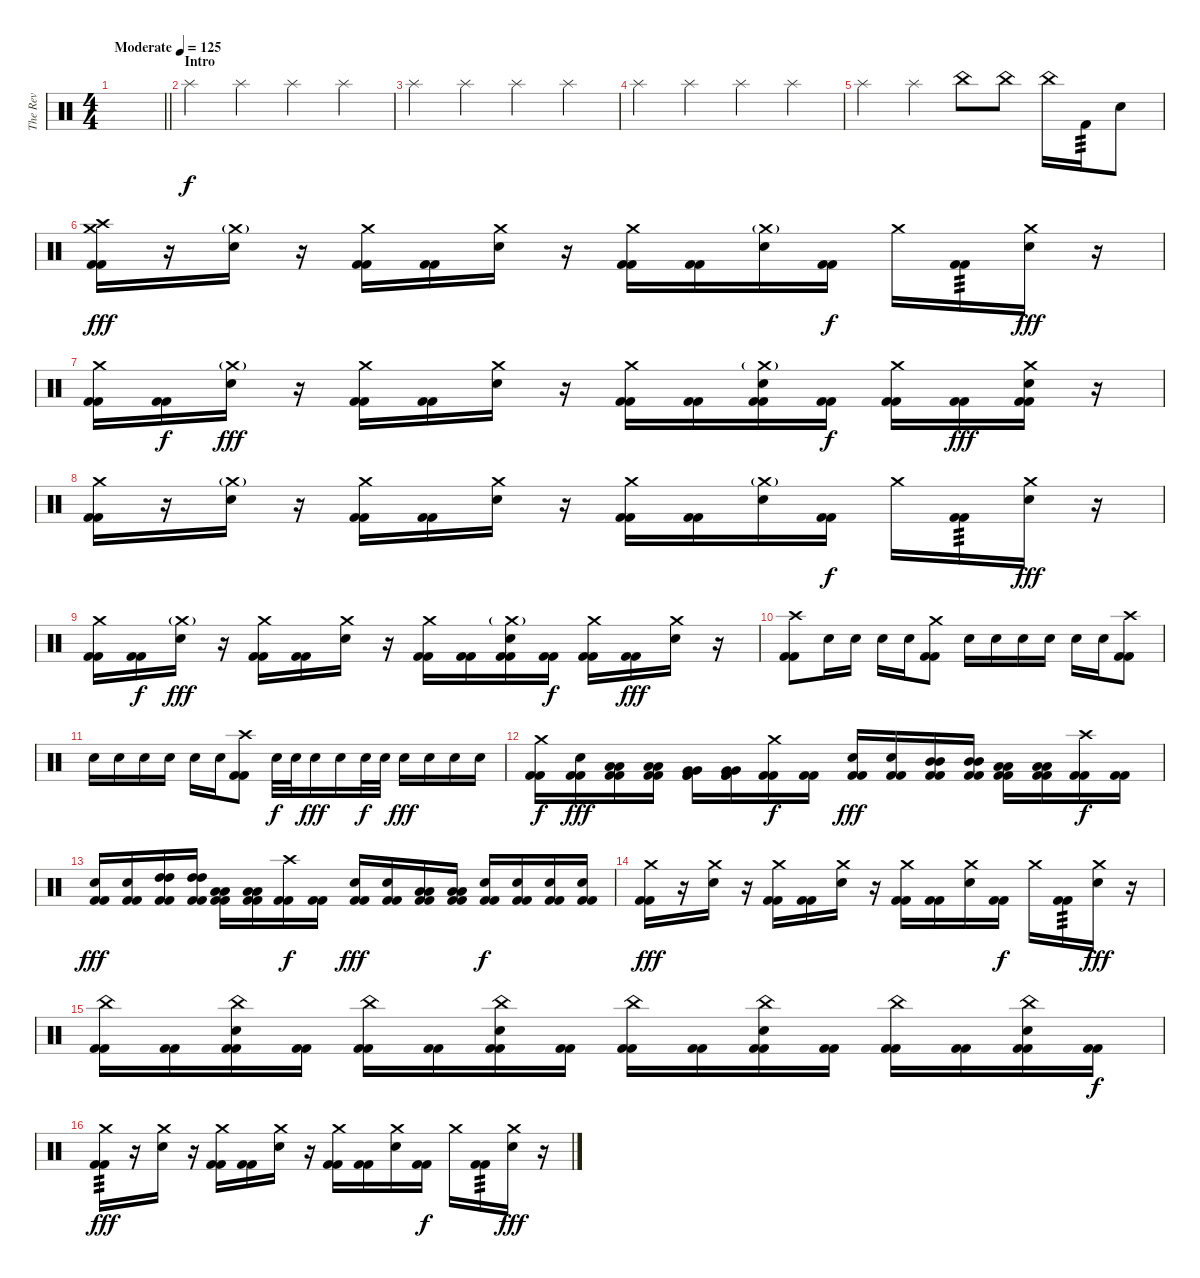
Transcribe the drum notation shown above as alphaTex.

\track ("The Rev" "The Rev") {mute instrument percussion}
\staff {score}
\articulation defaults
\ts (4 4)
\tempo (125 "Moderate")
\clef neutral
\barLineRight lightlight
\ks c
|
\section ("" "Intro")
"Splash (hit)".4 "Splash (hit)".4 "Splash (hit)".4 "Splash (hit)".4 |
"Splash (hit)".4 "Splash (hit)".4 "Splash (hit)".4 "Splash (hit)".4 |
"Splash (hit)".4 "Splash (hit)".4 "Splash (hit)".4 "Splash (hit)".4 |
"Splash (hit)".4 "Splash (hit)".4 "China (hit)".8 "China (hit)".8 "China (hit)".16 "Kick (hit) 2".16{tp 3} "Electric Snare (hit)".8 |
("Crash medium (hit)" "Crash high (hit)" "Kick (hit) 2" "Kick (hit) 2").16{dy fff} r.16 ("Crash medium (hit)"{g} "Electric Snare (hit)").16 r.16 ("Crash medium (hit)" "Kick (hit) 2" "Kick (hit) 2").16 ("Kick (hit) 2" "Kick (hit) 2").16 ("Crash medium (hit)" "Electric Snare (hit)").16 r.16 ("Crash medium (hit)" "Kick (hit) 2" "Kick (hit) 2").16 ("Kick (hit) 2" "Kick (hit) 2").16 ("Crash medium (hit)"{g} "Electric Snare (hit)").16 ("Kick (hit) 2" "Kick (hit) 2").16{dy f} "Crash medium (hit)".16 ("Kick (hit) 2" "Kick (hit) 2").16{tp 3} ("Crash medium (hit)" "Electric Snare (hit)").16{dy fff} r.16 |
("Crash medium (hit)" "Kick (hit) 2" "Kick (hit) 2").16 ("Kick (hit) 2" "Kick (hit) 2").16{dy f} ("Crash medium (hit)"{g} "Electric Snare (hit)").16{dy fff} r.16 ("Crash medium (hit)" "Kick (hit) 2" "Kick (hit) 2").16 ("Kick (hit) 2" "Kick (hit) 2").16 ("Crash medium (hit)" "Electric Snare (hit)").16 r.16 ("Crash medium (hit)" "Kick (hit) 2" "Kick (hit) 2").16 ("Kick (hit) 2" "Kick (hit) 2").16 ("Crash medium (hit)"{g} "Electric Snare (hit)" "Kick (hit) 2" "Kick (hit) 2").16 ("Kick (hit) 2" "Kick (hit) 2").16{dy f} ("Crash medium (hit)" "Kick (hit) 2" "Kick (hit) 2").16 ("Kick (hit) 2" "Kick (hit) 2").16{dy fff} ("Crash medium (hit)" "Electric Snare (hit)" "Kick (hit) 2" "Kick (hit) 2").16 r.16 |
("Crash medium (hit)" "Kick (hit) 2" "Kick (hit) 2").16 r.16 ("Crash medium (hit)"{g} "Electric Snare (hit)").16 r.16 ("Crash medium (hit)" "Kick (hit) 2" "Kick (hit) 2").16 ("Kick (hit) 2" "Kick (hit) 2").16 ("Crash medium (hit)" "Electric Snare (hit)").16 r.16 ("Crash medium (hit)" "Kick (hit) 2" "Kick (hit) 2").16 ("Kick (hit) 2" "Kick (hit) 2").16 ("Crash medium (hit)"{g} "Electric Snare (hit)").16 ("Kick (hit) 2" "Kick (hit) 2").16{dy f} "Crash medium (hit)".16 ("Kick (hit) 2" "Kick (hit) 2").16{tp 3} ("Crash medium (hit)" "Electric Snare (hit)").16{dy fff} r.16 |
("Crash medium (hit)" "Kick (hit) 2" "Kick (hit) 2").16 ("Kick (hit) 2" "Kick (hit) 2").16{dy f} ("Crash medium (hit)"{g} "Electric Snare (hit)").16{dy fff} r.16 ("Crash medium (hit)" "Kick (hit) 2" "Kick (hit) 2").16 ("Kick (hit) 2" "Kick (hit) 2").16 ("Crash medium (hit)" "Electric Snare (hit)").16 r.16 ("Crash medium (hit)" "Kick (hit) 2" "Kick (hit) 2").16 ("Kick (hit) 2" "Kick (hit) 2").16 ("Crash medium (hit)"{g} "Electric Snare (hit)" "Kick (hit) 2" "Kick (hit) 2").16 ("Kick (hit) 2" "Kick (hit) 2").16{dy f} ("Crash medium (hit)" "Kick (hit) 2" "Kick (hit) 2").16 ("Kick (hit) 2" "Kick (hit) 2").16{dy fff} ("Crash medium (hit)" "Electric Snare (hit)").16 r.16 |
("Crash high (hit)" "Kick (hit) 2" "Kick (hit) 2").8 "Electric Snare (hit)".16 "Electric Snare (hit)".16 "Electric Snare (hit)".16 "Electric Snare (hit)".16 ("Crash medium (hit)" "Kick (hit) 2" "Kick (hit) 2").8 "Electric Snare (hit)".16 "Electric Snare (hit)".16 "Electric Snare (hit)".16 "Electric Snare (hit)".16 "Electric Snare (hit)".16 "Electric Snare (hit)".16 ("Crash high (hit)" "Kick (hit) 2" "Kick (hit) 2").8 |
"Electric Snare (hit)".16 "Electric Snare (hit)".16 "Electric Snare (hit)".16 "Electric Snare (hit)".16 "Electric Snare (hit)".16 "Electric Snare (hit)".16 ("Crash high (hit)" "Kick (hit) 2" "Kick (hit) 2").8 "Electric Snare (hit)".32{dy f} "Electric Snare (hit)".32 "Electric Snare (hit)".16{dy fff} "Electric Snare (hit)".16 "Electric Snare (hit)".32{dy f} "Electric Snare (hit)".32 "Electric Snare (hit)".16{dy fff} "Electric Snare (hit)".16 "Electric Snare (hit)".16 "Electric Snare (hit)".16 |
("Crash medium (hit)" "Kick (hit) 2" "Kick (hit) 2").16{dy f} ("Electric Snare (hit)" "Kick (hit) 2" "Kick (hit) 2").16{dy fff} ("Low Tom (hit)" "Low Tom (hit)" "Kick (hit) 2" "Kick (hit) 2").16 ("Low Tom (hit)" "Low Tom (hit)" "Kick (hit) 2" "Kick (hit) 2").16 ("Very Low Tom (hit)" "Very Low Tom (hit)" "Kick (hit) 2" "Kick (hit) 2").16 ("Very Low Tom (hit)" "Very Low Tom (hit)" "Kick (hit) 2" "Kick (hit) 2").16 ("Crash medium (hit)" "Kick (hit) 2" "Kick (hit) 2").16{dy f} ("Kick (hit) 2" "Kick (hit) 2").16 ("Electric Snare (hit)" "Kick (hit) 2" "Kick (hit) 2").16{dy fff} ("Electric Snare (hit)" "Kick (hit) 2" "Kick (hit) 2").16 ("Mid Tom (hit)" "Mid Tom (hit)" "Kick (hit) 2" "Kick (hit) 2").16 ("Mid Tom (hit)" "Mid Tom (hit)" "Kick (hit) 2" "Kick (hit) 2").16 ("Low Tom (hit)" "Low Tom (hit)" "Kick (hit) 2" "Kick (hit) 2").16 ("Low Tom (hit)" "Low Tom (hit)" "Kick (hit) 2" "Kick (hit) 2").16 ("Crash high (hit)" "Kick (hit) 2" "Kick (hit) 2").16{dy f} ("Kick (hit) 2" "Kick (hit) 2").16 |
("Electric Snare (hit)" "Kick (hit) 2" "Kick (hit) 2").16{dy fff} ("Electric Snare (hit)" "Kick (hit) 2" "Kick (hit) 2").16 ("High Tom (hit)" "High Tom (hit)" "Kick (hit) 2" "Kick (hit) 2").16 ("High Tom (hit)" "High Tom (hit)" "Kick (hit) 2" "Kick (hit) 2").16 ("Low Tom (hit)" "Low Tom (hit)" "Kick (hit) 2" "Kick (hit) 2").16 ("Low Tom (hit)" "Low Tom (hit)" "Kick (hit) 2" "Kick (hit) 2").16 ("Crash high (hit)" "Kick (hit) 2" "Kick (hit) 2").16{dy f} ("Kick (hit) 2" "Kick (hit) 2").16 ("Electric Snare (hit)" "Kick (hit) 2" "Kick (hit) 2").16{dy fff} ("Electric Snare (hit)" "Kick (hit) 2" "Kick (hit) 2").16 ("Low Tom (hit)" "Low Tom (hit)" "Kick (hit) 2" "Kick (hit) 2").16 ("Low Tom (hit)" "Low Tom (hit)" "Kick (hit) 2" "Kick (hit) 2").16 ("Electric Snare (hit)" "Kick (hit) 2" "Kick (hit) 2").16{dy f} ("Electric Snare (hit)" "Kick (hit) 2" "Kick (hit) 2").16 ("Electric Snare (hit)" "Kick (hit) 2" "Kick (hit) 2").16 ("Electric Snare (hit)" "Kick (hit) 2" "Kick (hit) 2").16 |
("Crash medium (hit)" "Kick (hit) 2" "Kick (hit) 2").16{dy fff} r.16 ("Crash medium (hit)" "Electric Snare (hit)").16 r.16 ("Crash medium (hit)" "Kick (hit) 2" "Kick (hit) 2").16 ("Kick (hit) 2" "Kick (hit) 2").16 ("Crash medium (hit)" "Electric Snare (hit)").16 r.16 ("Crash medium (hit)" "Kick (hit) 2" "Kick (hit) 2").16 ("Kick (hit) 2" "Kick (hit) 2").16 ("Crash medium (hit)" "Electric Snare (hit)").16 ("Kick (hit) 2" "Kick (hit) 2").16{dy f} "Crash medium (hit)".16 ("Kick (hit) 2" "Kick (hit) 2").16{tp 3} ("Crash medium (hit)" "Electric Snare (hit)").16{dy fff} r.16 |
("China (hit)" "Kick (hit) 2" "Kick (hit) 2").16 ("Kick (hit) 2" "Kick (hit) 2").16 ("China (hit)" "Electric Snare (hit)" "Kick (hit) 2" "Kick (hit) 2").16 ("Kick (hit) 2" "Kick (hit) 2").16 ("China (hit)" "Kick (hit) 2" "Kick (hit) 2").16 ("Kick (hit) 2" "Kick (hit) 2").16 ("China (hit)" "Electric Snare (hit)" "Kick (hit) 2" "Kick (hit) 2").16 ("Kick (hit) 2" "Kick (hit) 2").16 ("China (hit)" "Kick (hit) 2" "Kick (hit) 2").16 ("Kick (hit) 2" "Kick (hit) 2").16 ("China (hit)" "Electric Snare (hit)" "Kick (hit) 2" "Kick (hit) 2").16 ("Kick (hit) 2" "Kick (hit) 2").16 ("China (hit)" "Kick (hit) 2" "Kick (hit) 2").16 ("Kick (hit) 2" "Kick (hit) 2").16 ("China (hit)" "Electric Snare (hit)" "Kick (hit) 2" "Kick (hit) 2").16 ("Kick (hit) 2" "Kick (hit) 2").16{dy f} |
("Crash medium (hit)" "Kick (hit) 2" "Kick (hit) 2").16{tp 3 dy fff} r.16 ("Crash medium (hit)" "Electric Snare (hit)").16 r.16 ("Crash medium (hit)" "Kick (hit) 2" "Kick (hit) 2").16 ("Kick (hit) 2" "Kick (hit) 2").16 ("Crash medium (hit)" "Electric Snare (hit)").16 r.16 ("Crash medium (hit)" "Kick (hit) 2" "Kick (hit) 2").16 ("Kick (hit) 2" "Kick (hit) 2").16 ("Crash medium (hit)" "Electric Snare (hit)").16 ("Kick (hit) 2" "Kick (hit) 2").16{dy f} "Crash medium (hit)".16 ("Kick (hit) 2" "Kick (hit) 2").16{tp 3} ("Crash medium (hit)" "Electric Snare (hit)").16{dy fff} r.16
